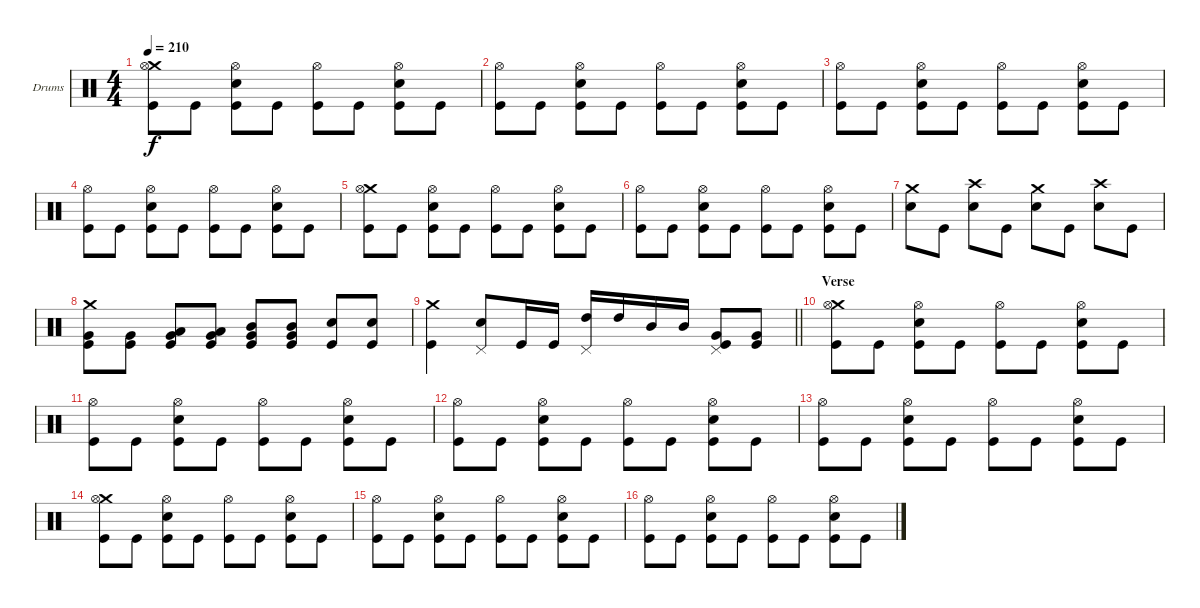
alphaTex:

\bracketExtendMode groupsimilarinstruments
\firstSystemTrackNameOrientation horizontal
\otherSystemsTrackNameOrientation horizontal
\track ("Drumkit" "Drums") {instrument percussion}
\staff {score}
\articulation defaults
\ts (4 4)
\tempo 210
\clef neutral
\ks c
("Crash medium (hit)" "Hi-Hat (open)" "Kick (hit)").8{dy f} "Kick (hit)".8 ("Hi-Hat (open)" "Snare (hit) 2" "Kick (hit)").8 "Kick (hit)".8 ("Hi-Hat (open)" "Kick (hit)").8 "Kick (hit)".8 ("Hi-Hat (open)" "Snare (hit) 2" "Kick (hit)").8 "Kick (hit)".8 |
("Hi-Hat (open)" "Kick (hit)").8 "Kick (hit)".8 ("Hi-Hat (open)" "Snare (hit) 2" "Kick (hit)").8 "Kick (hit)".8 ("Hi-Hat (open)" "Kick (hit)").8 "Kick (hit)".8 ("Hi-Hat (open)" "Snare (hit) 2" "Kick (hit)").8 "Kick (hit)".8 |
("Hi-Hat (open)" "Kick (hit)").8 "Kick (hit)".8 ("Hi-Hat (open)" "Snare (hit) 2" "Kick (hit)").8 "Kick (hit)".8 ("Hi-Hat (open)" "Kick (hit)").8 "Kick (hit)".8 ("Hi-Hat (open)" "Snare (hit) 2" "Kick (hit)").8 "Kick (hit)".8 |
("Hi-Hat (open)" "Kick (hit)").8 "Kick (hit)".8 ("Hi-Hat (open)" "Snare (hit) 2" "Kick (hit)").8 "Kick (hit)".8 ("Hi-Hat (open)" "Kick (hit)").8 "Kick (hit)".8 ("Hi-Hat (open)" "Snare (hit) 2" "Kick (hit)").8 "Kick (hit)".8 |
("Crash medium (hit)" "Hi-Hat (open)" "Kick (hit)").8 "Kick (hit)".8 ("Hi-Hat (open)" "Snare (hit) 2" "Kick (hit)").8 "Kick (hit)".8 ("Hi-Hat (open)" "Kick (hit)").8 "Kick (hit)".8 ("Hi-Hat (open)" "Snare (hit) 2" "Kick (hit)").8 "Kick (hit)".8 |
("Hi-Hat (open)" "Kick (hit)").8 "Kick (hit)".8 ("Hi-Hat (open)" "Snare (hit) 2" "Kick (hit)").8 "Kick (hit)".8 ("Hi-Hat (open)" "Kick (hit)").8 "Kick (hit)".8 ("Hi-Hat (open)" "Snare (hit) 2" "Kick (hit)").8 "Kick (hit)".8 |
("Crash medium (hit)" "Snare (hit) 2").8 "Kick (hit)".8 ("Crash high (hit)" "Snare (hit) 2").8 "Kick (hit)".8 ("Crash medium (hit)" "Snare (hit) 2").8 "Kick (hit)".8 ("Crash high (hit)" "Snare (hit) 2").8 "Kick (hit)".8 |
("Crash medium (hit)" "Very Low Tom (hit)" "Kick (hit)").8 ("Very Low Tom (hit)" "Kick (hit)").8 ("Low Tom (hit)" "Very Low Tom (hit)" "Kick (hit)").8 ("Low Tom (hit)" "Very Low Tom (hit)" "Kick (hit)").8 ("Mid Tom (hit)" "Very Low Tom (hit)" "Kick (hit)").8 ("Mid Tom (hit)" "Very Low Tom (hit)" "Kick (hit)").8 ("Snare (hit) 2" "Kick (hit)").8 ("Snare (hit) 2" "Kick (hit)").8 |
\barLineRight lightlight
("Crash medium (hit)" "Kick (hit)").4 ("Pedal Hi-Hat (hit)" "Snare (hit) 2").8 "Kick (hit)".16 "Kick (hit)".16 ("Pedal Hi-Hat (hit)" "High Tom (hit)").16 "High Tom (hit)".16 "Mid Tom (hit)".16 "Mid Tom (hit)".16 ("Pedal Hi-Hat (hit)" "Very Low Tom (hit)" "Kick (hit)").8 ("Very Low Tom (hit)" "Kick (hit)").8 |
\section ("" "Verse")
("Crash medium (hit)" "Hi-Hat (open)" "Kick (hit)").8 "Kick (hit)".8 ("Hi-Hat (open)" "Snare (hit) 2" "Kick (hit)").8 "Kick (hit)".8 ("Hi-Hat (open)" "Kick (hit)").8 "Kick (hit)".8 ("Hi-Hat (open)" "Snare (hit) 2" "Kick (hit)").8 "Kick (hit)".8 |
("Hi-Hat (open)" "Kick (hit)").8 "Kick (hit)".8 ("Hi-Hat (open)" "Snare (hit) 2" "Kick (hit)").8 "Kick (hit)".8 ("Hi-Hat (open)" "Kick (hit)").8 "Kick (hit)".8 ("Hi-Hat (open)" "Snare (hit) 2" "Kick (hit)").8 "Kick (hit)".8 |
("Hi-Hat (open)" "Kick (hit)").8 "Kick (hit)".8 ("Hi-Hat (open)" "Snare (hit) 2" "Kick (hit)").8 "Kick (hit)".8 ("Hi-Hat (open)" "Kick (hit)").8 "Kick (hit)".8 ("Hi-Hat (open)" "Snare (hit) 2" "Kick (hit)").8 "Kick (hit)".8 |
("Hi-Hat (open)" "Kick (hit)").8 "Kick (hit)".8 ("Hi-Hat (open)" "Snare (hit) 2" "Kick (hit)").8 "Kick (hit)".8 ("Hi-Hat (open)" "Kick (hit)").8 "Kick (hit)".8 ("Hi-Hat (open)" "Snare (hit) 2" "Kick (hit)").8 "Kick (hit)".8 |
("Crash medium (hit)" "Hi-Hat (open)" "Kick (hit)").8 "Kick (hit)".8 ("Hi-Hat (open)" "Snare (hit) 2" "Kick (hit)").8 "Kick (hit)".8 ("Hi-Hat (open)" "Kick (hit)").8 "Kick (hit)".8 ("Hi-Hat (open)" "Snare (hit) 2" "Kick (hit)").8 "Kick (hit)".8 |
("Hi-Hat (open)" "Kick (hit)").8 "Kick (hit)".8 ("Hi-Hat (open)" "Snare (hit) 2" "Kick (hit)").8 "Kick (hit)".8 ("Hi-Hat (open)" "Kick (hit)").8 "Kick (hit)".8 ("Hi-Hat (open)" "Snare (hit) 2" "Kick (hit)").8 "Kick (hit)".8 |
("Hi-Hat (open)" "Kick (hit)").8 "Kick (hit)".8 ("Hi-Hat (open)" "Snare (hit) 2" "Kick (hit)").8 "Kick (hit)".8 ("Hi-Hat (open)" "Kick (hit)").8 "Kick (hit)".8 ("Hi-Hat (open)" "Snare (hit) 2" "Kick (hit)").8 "Kick (hit)".8
